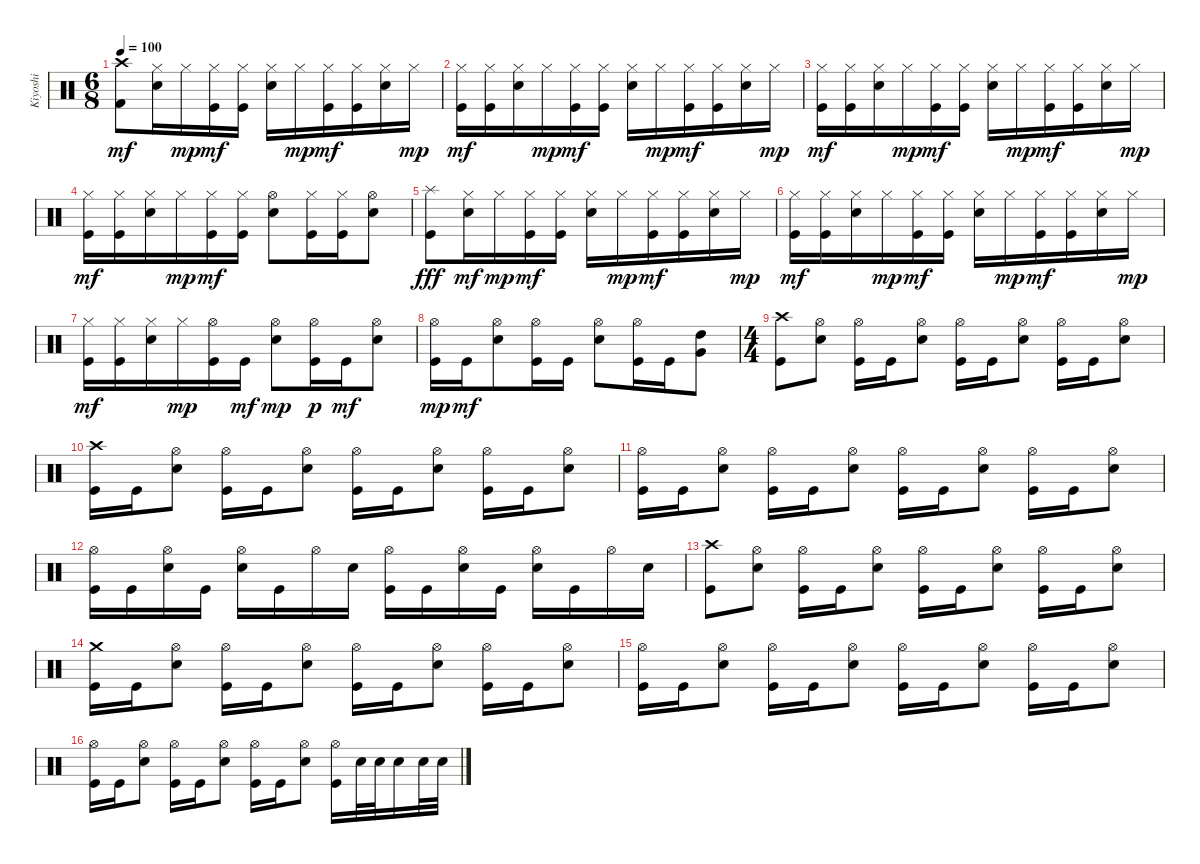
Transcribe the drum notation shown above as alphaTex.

\track ("Kiyoshi" "Kiyoshi") {instrument percussion}
\staff {score}
\articulation defaults
\ts (6 8)
\tempo 100
\clef neutral
\ks c
("Kick (hit) 2" "Crash high (hit)").8{dy mf} ("Electric Snare (hit)" "Hi-Hat (closed)").16 "Hi-Hat (closed)".16{dy mp} ("Hi-Hat (closed)" "Kick (hit)").16{dy mf} ("Hi-Hat (closed)" "Kick (hit)").16 ("Hi-Hat (closed)" "Electric Snare (hit)").16 "Hi-Hat (closed)".16{dy mp} ("Hi-Hat (closed)" "Kick (hit)").16{dy mf} ("Hi-Hat (closed)" "Kick (hit)").16 ("Hi-Hat (closed)" "Electric Snare (hit)").16 "Hi-Hat (closed)".16{dy mp} |
("Hi-Hat (closed)" "Kick (hit)").16{dy mf} ("Hi-Hat (closed)" "Kick (hit)").16 ("Hi-Hat (closed)" "Electric Snare (hit)").16 "Hi-Hat (closed)".16{dy mp} ("Hi-Hat (closed)" "Kick (hit)").16{dy mf} ("Hi-Hat (closed)" "Kick (hit)").16 ("Hi-Hat (closed)" "Electric Snare (hit)").16 "Hi-Hat (closed)".16{dy mp} ("Hi-Hat (closed)" "Kick (hit)").16{dy mf} ("Hi-Hat (closed)" "Kick (hit)").16 ("Hi-Hat (closed)" "Electric Snare (hit)").16 "Hi-Hat (closed)".16{dy mp} |
("Hi-Hat (closed)" "Kick (hit)").16{dy mf} ("Hi-Hat (closed)" "Kick (hit)").16 ("Hi-Hat (closed)" "Electric Snare (hit)").16 "Hi-Hat (closed)".16{dy mp} ("Hi-Hat (closed)" "Kick (hit)").16{dy mf} ("Hi-Hat (closed)" "Kick (hit)").16 ("Hi-Hat (closed)" "Electric Snare (hit)").16 "Hi-Hat (closed)".16{dy mp} ("Hi-Hat (closed)" "Kick (hit)").16{dy mf} ("Hi-Hat (closed)" "Kick (hit)").16 ("Hi-Hat (closed)" "Electric Snare (hit)").16 "Hi-Hat (closed)".16{dy mp} |
("Hi-Hat (closed)" "Kick (hit)").16{dy mf} ("Hi-Hat (closed)" "Kick (hit)").16 ("Hi-Hat (closed)" "Electric Snare (hit)").16 "Hi-Hat (closed)".16{dy mp} ("Hi-Hat (closed)" "Kick (hit)").16{dy mf} ("Hi-Hat (closed)" "Kick (hit)").16 ("Electric Snare (hit)" "Hi-Hat (open)").8 ("Hi-Hat (closed)" "Kick (hit)").16 ("Hi-Hat (closed)" "Kick (hit)").16 ("Hi-Hat (open)" "Electric Snare (hit)").8 |
("Kick (hit)" "Splash (hit)").8{dy fff} ("Electric Snare (hit)" "Hi-Hat (closed)").16{dy mf} "Hi-Hat (closed)".16{dy mp} ("Hi-Hat (closed)" "Kick (hit)").16{dy mf} ("Hi-Hat (closed)" "Kick (hit)").16 ("Hi-Hat (closed)" "Electric Snare (hit)").16 "Hi-Hat (closed)".16{dy mp} ("Hi-Hat (closed)" "Kick (hit)").16{dy mf} ("Hi-Hat (closed)" "Kick (hit)").16 ("Hi-Hat (closed)" "Electric Snare (hit)").16 "Hi-Hat (closed)".16{dy mp} |
("Hi-Hat (closed)" "Kick (hit)").16{dy mf} ("Hi-Hat (closed)" "Kick (hit)").16 ("Hi-Hat (closed)" "Electric Snare (hit)").16 "Hi-Hat (closed)".16{dy mp} ("Hi-Hat (closed)" "Kick (hit)").16{dy mf} ("Hi-Hat (closed)" "Kick (hit)").16 ("Hi-Hat (closed)" "Electric Snare (hit)").16 "Hi-Hat (closed)".16{dy mp} ("Hi-Hat (closed)" "Kick (hit)").16{dy mf} ("Hi-Hat (closed)" "Kick (hit)").16 ("Hi-Hat (closed)" "Electric Snare (hit)").16 "Hi-Hat (closed)".16{dy mp} |
("Hi-Hat (closed)" "Kick (hit)").16{dy mf} ("Hi-Hat (closed)" "Kick (hit)").16 ("Hi-Hat (closed)" "Electric Snare (hit)").16 "Hi-Hat (closed)".16{dy mp} ("Kick (hit)" "Hi-Hat (open)").16 "Kick (hit)".16{dy mf} ("Electric Snare (hit)" "Hi-Hat (open)").8{dy mp} ("Kick (hit)" "Hi-Hat (open)").16{dy p} "Kick (hit)".16{dy mf} ("Hi-Hat (open)" "Electric Snare (hit)").8 |
("Kick (hit)" "Hi-Hat (open)").16{dy mp} "Kick (hit)".16{dy mf} ("Hi-Hat (open)" "Electric Snare (hit)").8 ("Kick (hit)" "Hi-Hat (open)").16 "Kick (hit)".16 ("Hi-Hat (open)" "Electric Snare (hit)").8 ("Kick (hit)" "Hi-Hat (open)").16 "Kick (hit)".16 ("High Tom (hit)" "Very Low Tom (hit)").8 |
\ts (4 4)
("Crash high (hit)" "Kick (hit)").8 ("Hi-Hat (open)" "Electric Snare (hit)").8 ("Kick (hit)" "Hi-Hat (open)").16 "Kick (hit)".16 ("Hi-Hat (open)" "Electric Snare (hit)").8 ("Kick (hit)" "Hi-Hat (open)").16 "Kick (hit)".16 ("Hi-Hat (open)" "Electric Snare (hit)").8 ("Kick (hit)" "Hi-Hat (open)").16 "Kick (hit)".16 ("Hi-Hat (open)" "Electric Snare (hit)").8 |
("Crash high (hit)" "Kick (hit)").16 "Kick (hit)".16 ("Hi-Hat (open)" "Electric Snare (hit)").8 ("Kick (hit)" "Hi-Hat (open)").16 "Kick (hit)".16 ("Hi-Hat (open)" "Electric Snare (hit)").8 ("Kick (hit)" "Hi-Hat (open)").16 "Kick (hit)".16 ("Hi-Hat (open)" "Electric Snare (hit)").8 ("Kick (hit)" "Hi-Hat (open)").16 "Kick (hit)".16 ("Hi-Hat (open)" "Electric Snare (hit)").8 |
("Kick (hit)" "Hi-Hat (open)").16 "Kick (hit)".16 ("Hi-Hat (open)" "Electric Snare (hit)").8 ("Kick (hit)" "Hi-Hat (open)").16 "Kick (hit)".16 ("Hi-Hat (open)" "Electric Snare (hit)").8 ("Kick (hit)" "Hi-Hat (open)").16 "Kick (hit)".16 ("Hi-Hat (open)" "Electric Snare (hit)").8 ("Kick (hit)" "Hi-Hat (open)").16 "Kick (hit)".16 ("Hi-Hat (open)" "Electric Snare (hit)").8 |
("Kick (hit)" "Hi-Hat (open)").16 "Kick (hit)".16 ("Hi-Hat (open)" "Electric Snare (hit)").16 "Kick (hit)".16 ("Electric Snare (hit)" "Hi-Hat (open)").16 "Kick (hit)".16 "Hi-Hat (open)".16 "Electric Snare (hit)".16 ("Kick (hit)" "Hi-Hat (open)").16 "Kick (hit)".16 ("Electric Snare (hit)" "Hi-Hat (open)").16 "Kick (hit)".16 ("Electric Snare (hit)" "Hi-Hat (open)").16 "Kick (hit)".16 "Hi-Hat (open)".16 "Electric Snare (hit)".16 |
("Crash high (hit)" "Kick (hit)").8 ("Hi-Hat (open)" "Electric Snare (hit)").8 ("Kick (hit)" "Hi-Hat (open)").16 "Kick (hit)".16 ("Hi-Hat (open)" "Electric Snare (hit)").8 ("Kick (hit)" "Hi-Hat (open)").16 "Kick (hit)".16 ("Hi-Hat (open)" "Electric Snare (hit)").8 ("Kick (hit)" "Hi-Hat (open)").16 "Kick (hit)".16 ("Hi-Hat (open)" "Electric Snare (hit)").8 |
("Crash medium (hit)" "Kick (hit)").16 "Kick (hit)".16 ("Hi-Hat (open)" "Electric Snare (hit)").8 ("Kick (hit)" "Hi-Hat (open)").16 "Kick (hit)".16 ("Hi-Hat (open)" "Electric Snare (hit)").8 ("Kick (hit)" "Hi-Hat (open)").16 "Kick (hit)".16 ("Hi-Hat (open)" "Electric Snare (hit)").8 ("Kick (hit)" "Hi-Hat (open)").16 "Kick (hit)".16 ("Hi-Hat (open)" "Electric Snare (hit)").8 |
("Kick (hit)" "Hi-Hat (open)").16 "Kick (hit)".16 ("Hi-Hat (open)" "Electric Snare (hit)").8 ("Kick (hit)" "Hi-Hat (open)").16 "Kick (hit)".16 ("Hi-Hat (open)" "Electric Snare (hit)").8 ("Kick (hit)" "Hi-Hat (open)").16 "Kick (hit)".16 ("Hi-Hat (open)" "Electric Snare (hit)").8 ("Kick (hit)" "Hi-Hat (open)").16 "Kick (hit)".16 ("Hi-Hat (open)" "Electric Snare (hit)").8 |
("Kick (hit)" "Hi-Hat (open)").16 "Kick (hit)".16 ("Hi-Hat (open)" "Electric Snare (hit)").8 ("Kick (hit)" "Hi-Hat (open)").16 "Kick (hit)".16 ("Hi-Hat (open)" "Electric Snare (hit)").8 ("Kick (hit)" "Hi-Hat (open)").16 "Kick (hit)".16 ("Hi-Hat (open)" "Electric Snare (hit)").8 ("Kick (hit)" "Hi-Hat (open)").16 "Electric Snare (hit)".32 "Electric Snare (hit)".32 "Electric Snare (hit)".16 "Electric Snare (hit)".32 "Electric Snare (hit)".32
